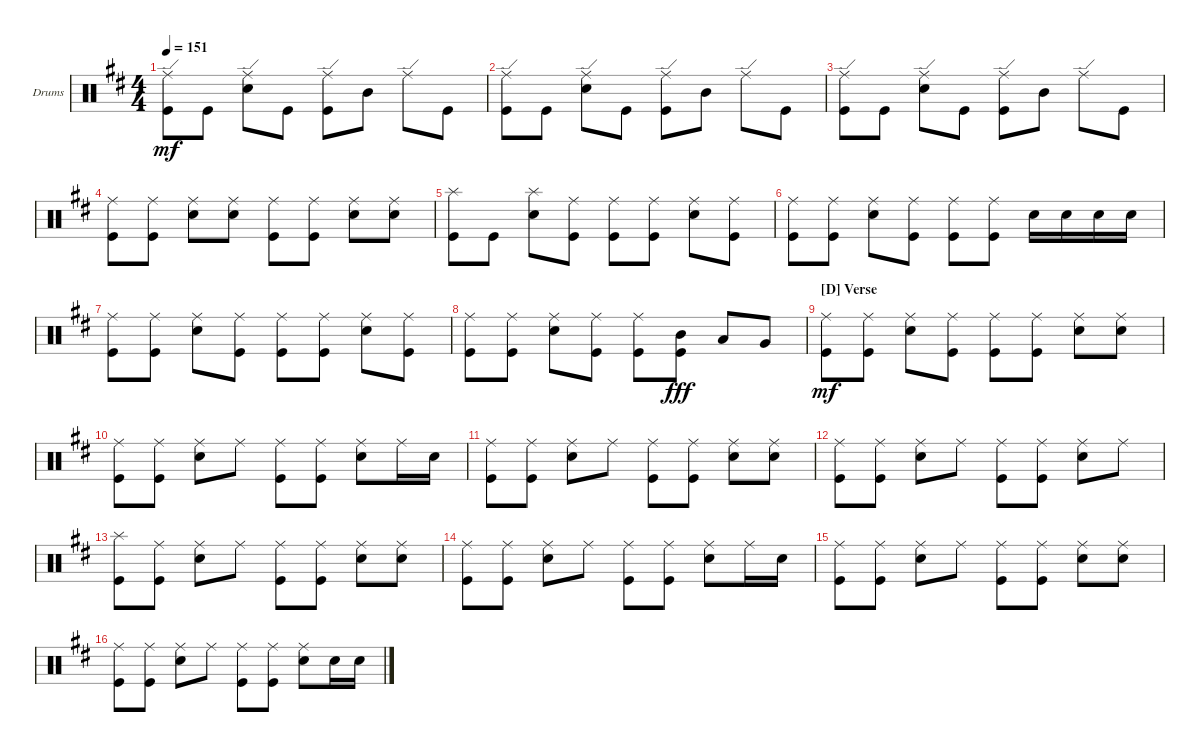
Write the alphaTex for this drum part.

\defaultSystemsLayout 4
\bracketExtendMode groupsimilarinstruments
\firstSystemTrackNameOrientation horizontal
\otherSystemsTrackNameOrientation horizontal
\track ("Drumkit" "Drums") {instrument percussion}
\staff {score}
\articulation defaults
\ts (4 4)
\tempo 151
\clef neutral
\ks bminor
("Kick (hit)" "Ride (edge)").8{dy mf} "Kick (hit)".8 ("Snare (hit) 2" "Ride (edge)").8 "Kick (hit)".8 ("Kick (hit)" "Ride (edge)").8 "Mid Tom (hit)".8 "Ride (edge)".8 "Kick (hit)".8 |
("Kick (hit)" "Ride (edge)").8 "Kick (hit)".8 ("Snare (hit) 2" "Ride (edge)").8 "Kick (hit)".8 ("Kick (hit)" "Ride (edge)").8 "Mid Tom (hit)".8 "Ride (edge)".8 "Kick (hit)".8 |
("Kick (hit)" "Ride (edge)").8 "Kick (hit)".8 ("Snare (hit) 2" "Ride (edge)").8 "Kick (hit)".8 ("Kick (hit)" "Ride (edge)").8 "Mid Tom (hit)".8 "Ride (edge)".8 "Kick (hit)".8 |
("Ride (middle)" "Kick (hit)").8 ("Ride (middle)" "Kick (hit)").8 ("Ride (middle)" "Snare (hit) 2").8 ("Ride (middle)" "Snare (hit) 2").8 ("Ride (middle)" "Kick (hit)").8 ("Ride (middle)" "Kick (hit)").8 ("Ride (middle)" "Snare (hit) 2").8 ("Ride (middle)" "Snare (hit) 2").8 |
("Kick (hit)" "Splash (hit)").8 "Kick (hit)".8 ("Snare (hit) 2" "Splash (hit)").8 ("Ride (middle)" "Kick (hit)").8 ("Ride (middle)" "Kick (hit)").8 ("Ride (middle)" "Kick (hit)").8 ("Ride (middle)" "Snare (hit) 2").8 ("Ride (middle)" "Kick (hit)").8 |
("Ride (middle)" "Kick (hit)").8 ("Ride (middle)" "Kick (hit)").8 ("Ride (middle)" "Snare (hit) 2").8 ("Ride (middle)" "Kick (hit)").8 ("Ride (middle)" "Kick (hit)").8 ("Ride (middle)" "Kick (hit)").8 "Snare (hit) 2".16 "Snare (hit) 2".16 "Snare (hit) 2".16 "Snare (hit) 2".16 |
("Ride (middle)" "Kick (hit)").8 ("Ride (middle)" "Kick (hit)").8 ("Ride (middle)" "Snare (hit) 2").8 ("Ride (middle)" "Kick (hit)").8 ("Ride (middle)" "Kick (hit)").8 ("Ride (middle)" "Kick (hit)").8 ("Ride (middle)" "Snare (hit) 2").8 ("Ride (middle)" "Kick (hit)").8 |
("Ride (middle)" "Kick (hit)").8 ("Ride (middle)" "Kick (hit)").8 ("Ride (middle)" "Snare (hit) 2").8 ("Ride (middle)" "Kick (hit)").8 ("Ride (middle)" "Kick (hit)").8 ("Kick (hit)" "Mid Tom (hit)").8{dy fff} "Low Tom (hit)".8 "Very Low Tom (hit)".8 |
\section ("D" "Verse")
("Kick (hit)" "Ride (middle)").8{dy mf} ("Kick (hit)" "Ride (middle)").8 ("Ride (middle)" "Snare (hit) 2").8 ("Ride (middle)" "Kick (hit)").8 ("Ride (middle)" "Kick (hit)").8 ("Ride (middle)" "Kick (hit)").8 ("Ride (middle)" "Snare (hit) 2").8 ("Ride (middle)" "Snare (hit) 2").8 |
("Kick (hit)" "Ride (middle)").8 ("Kick (hit)" "Ride (middle)").8 ("Snare (hit) 2" "Ride (middle)").8 "Ride (middle)".8 ("Kick (hit)" "Ride (middle)").8 ("Kick (hit)" "Ride (middle)").8 ("Snare (hit) 2" "Ride (middle)").8 "Ride (middle)".16 "Snare (hit) 2".16 |
("Kick (hit)" "Ride (middle)").8 ("Kick (hit)" "Ride (middle)").8 ("Ride (middle)" "Snare (hit) 2").8 "Ride (middle)".8 ("Ride (middle)" "Kick (hit)").8 ("Ride (middle)" "Kick (hit)").8 ("Ride (middle)" "Snare (hit) 2").8 ("Ride (middle)" "Snare (hit) 2").8 |
("Kick (hit)" "Ride (middle)").8 ("Kick (hit)" "Ride (middle)").8 ("Ride (middle)" "Snare (hit) 2").8 "Ride (middle)".8 ("Ride (middle)" "Kick (hit)").8 ("Ride (middle)" "Kick (hit)").8 ("Ride (middle)" "Snare (hit) 2").8 "Ride (middle)".8 |
("Kick (hit)" "Splash (hit)").8 ("Kick (hit)" "Ride (middle)").8 ("Ride (middle)" "Snare (hit) 2").8 "Ride (middle)".8 ("Ride (middle)" "Kick (hit)").8 ("Ride (middle)" "Kick (hit)").8 ("Ride (middle)" "Snare (hit) 2").8 ("Ride (middle)" "Snare (hit) 2").8 |
("Kick (hit)" "Ride (middle)").8 ("Kick (hit)" "Ride (middle)").8 ("Snare (hit) 2" "Ride (middle)").8 "Ride (middle)".8 ("Kick (hit)" "Ride (middle)").8 ("Kick (hit)" "Ride (middle)").8 ("Snare (hit) 2" "Ride (middle)").8 "Ride (middle)".16 "Snare (hit) 2".16 |
("Kick (hit)" "Ride (middle)").8 ("Kick (hit)" "Ride (middle)").8 ("Ride (middle)" "Snare (hit) 2").8 "Ride (middle)".8 ("Ride (middle)" "Kick (hit)").8 ("Ride (middle)" "Kick (hit)").8 ("Ride (middle)" "Snare (hit) 2").8 ("Ride (middle)" "Snare (hit) 2").8 |
("Kick (hit)" "Ride (middle)").8 ("Kick (hit)" "Ride (middle)").8 ("Ride (middle)" "Snare (hit) 2").8 "Ride (middle)".8 ("Ride (middle)" "Kick (hit)").8 ("Ride (middle)" "Kick (hit)").8 ("Ride (middle)" "Snare (hit) 2").8 "Snare (hit) 2".16 "Snare (hit) 2".16
